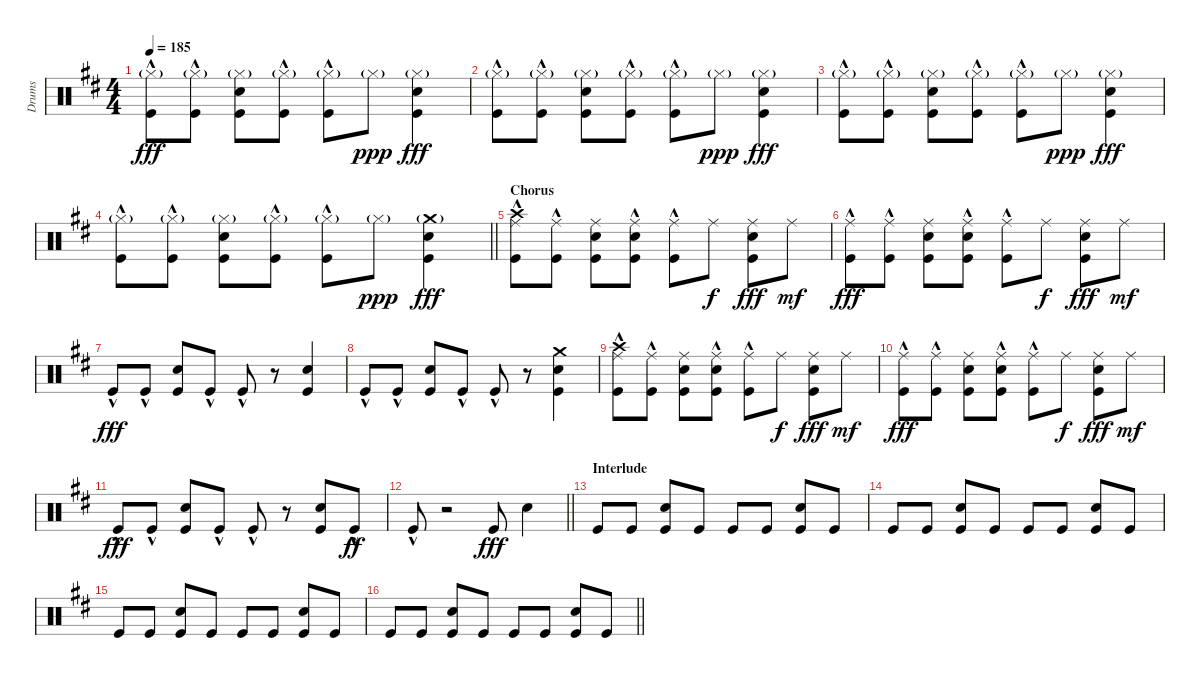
\track ("Drums" "Drums") {instrument percussion}
\staff {score}
\articulation defaults
\ts (4 4)
\tempo 185
\clef neutral
\ks d
("Hi-Hat (closed)"{g} "Kick (hit)"{hac}).8{dy fff} ("Hi-Hat (closed)"{g} "Kick (hit)"{hac}).8 ("Hi-Hat (closed)"{g} "Snare (hit) 2" "Kick (hit)").8 ("Hi-Hat (closed)"{g} "Kick (hit)"{hac}).8 ("Hi-Hat (closed)"{g} "Kick (hit)"{hac}).8 "Hi-Hat (closed)"{g}.8{dy ppp} ("Hi-Hat (closed)"{g} "Snare (hit) 2" "Kick (hit)").4{dy fff} |
("Hi-Hat (closed)"{g} "Kick (hit)"{hac}).8 ("Hi-Hat (closed)"{g} "Kick (hit)"{hac}).8 ("Hi-Hat (closed)"{g} "Snare (hit) 2" "Kick (hit)").8 ("Hi-Hat (closed)"{g} "Kick (hit)"{hac}).8 ("Hi-Hat (closed)"{g} "Kick (hit)"{hac}).8 "Hi-Hat (closed)"{g}.8{dy ppp} ("Hi-Hat (closed)"{g} "Snare (hit) 2" "Kick (hit)").4{dy fff} |
("Hi-Hat (closed)"{g} "Kick (hit)"{hac}).8 ("Hi-Hat (closed)"{g} "Kick (hit)"{hac}).8 ("Hi-Hat (closed)"{g} "Snare (hit) 2" "Kick (hit)").8 ("Hi-Hat (closed)"{g} "Kick (hit)"{hac}).8 ("Hi-Hat (closed)"{g} "Kick (hit)"{hac}).8 "Hi-Hat (closed)"{g}.8{dy ppp} ("Hi-Hat (closed)"{g} "Snare (hit) 2" "Kick (hit)").4{dy fff} |
\barLineRight lightlight
("Hi-Hat (closed)"{g} "Kick (hit)"{hac}).8 ("Hi-Hat (closed)"{g} "Kick (hit)"{hac}).8 ("Hi-Hat (closed)"{g} "Snare (hit) 2" "Kick (hit)").8 ("Hi-Hat (closed)"{g} "Kick (hit)"{hac}).8 ("Hi-Hat (closed)"{g} "Kick (hit)"{hac}).8 "Hi-Hat (closed)"{g}.8{dy ppp} ("Crash medium (hit)"{g} "Snare (hit) 2" "Kick (hit)").4{dy fff} |
\section ("" "Chorus")
("Ride (middle)" "Crash high (hit)" "Kick (hit)"{hac}).8 ("Ride (middle)" "Kick (hit)"{hac}).8 ("Ride (middle)" "Snare (hit) 2" "Kick (hit)").8 ("Ride (middle)" "Snare (hit) 2" "Kick (hit)"{hac}).8 ("Ride (middle)" "Kick (hit)"{hac}).8 "Ride (middle)".8{dy f} ("Ride (middle)" "Snare (hit) 2" "Kick (hit)").8{dy fff} "Ride (middle)".8{dy mf} |
("Ride (middle)" "Kick (hit)"{hac}).8{dy fff} ("Ride (middle)" "Kick (hit)"{hac}).8 ("Ride (middle)" "Snare (hit) 2" "Kick (hit)").8 ("Ride (middle)" "Snare (hit) 2" "Kick (hit)"{hac}).8 ("Ride (middle)" "Kick (hit)"{hac}).8 "Ride (middle)".8{dy f} ("Ride (middle)" "Snare (hit) 2" "Kick (hit)").8{dy fff} "Ride (middle)".8{dy mf} |
"Kick (hit)"{hac}.8{dy fff} "Kick (hit)"{hac}.8 ("Snare (hit) 2" "Kick (hit)").8 "Kick (hit)"{hac}.8 "Kick (hit)"{hac}.8 r.8 ("Snare (hit) 2" "Kick (hit)").4 |
"Kick (hit)"{hac}.8 "Kick (hit)"{hac}.8 ("Snare (hit) 2" "Kick (hit)").8 "Kick (hit)"{hac}.8 "Kick (hit)"{hac}.8 r.8 ("Crash medium (hit)" "Snare (hit) 2" "Kick (hit)").4 |
("Ride (middle)" "Crash high (hit)" "Kick (hit)"{hac}).8 ("Ride (middle)" "Kick (hit)"{hac}).8 ("Ride (middle)" "Snare (hit) 2" "Kick (hit)").8 ("Ride (middle)" "Snare (hit) 2" "Kick (hit)"{hac}).8 ("Ride (middle)" "Kick (hit)"{hac}).8 "Ride (middle)".8{dy f} ("Ride (middle)" "Snare (hit) 2" "Kick (hit)").8{dy fff} "Ride (middle)".8{dy mf} |
("Ride (middle)" "Kick (hit)"{hac}).8{dy fff} ("Ride (middle)" "Kick (hit)"{hac}).8 ("Ride (middle)" "Snare (hit) 2" "Kick (hit)").8 ("Ride (middle)" "Snare (hit) 2" "Kick (hit)"{hac}).8 ("Ride (middle)" "Kick (hit)"{hac}).8 "Ride (middle)".8{dy f} ("Ride (middle)" "Snare (hit) 2" "Kick (hit)").8{dy fff} "Ride (middle)".8{dy mf} |
"Kick (hit)"{hac}.8{dy fff} "Kick (hit)"{hac}.8 ("Snare (hit) 2" "Kick (hit)").8 "Kick (hit)"{hac}.8 "Kick (hit)"{hac}.8 r.8 ("Snare (hit) 2" "Kick (hit)").8 "Kick (hit)"{hac}.8{dy ff} |
\barLineRight lightlight "Kick (hit)"{hac}.8
r.2 "Kick (hit)".8{dy fff} "Snare (hit) 2".4 |
\section ("" "Interlude")
"Kick (hit)".8 "Kick (hit)".8 ("Snare (hit) 2" "Kick (hit)").8 "Kick (hit)".8 "Kick (hit)".8 "Kick (hit)".8 ("Snare (hit) 2" "Kick (hit)").8 "Kick (hit)".8 |
"Kick (hit)".8 "Kick (hit)".8 ("Snare (hit) 2" "Kick (hit)").8 "Kick (hit)".8 "Kick (hit)".8 "Kick (hit)".8 ("Snare (hit) 2" "Kick (hit)").8 "Kick (hit)".8 |
"Kick (hit)".8 "Kick (hit)".8 ("Snare (hit) 2" "Kick (hit)").8 "Kick (hit)".8 "Kick (hit)".8 "Kick (hit)".8 ("Snare (hit) 2" "Kick (hit)").8 "Kick (hit)".8 |
\barLineRight lightlight "Kick (hit)".8 "Kick (hit)".8
("Snare (hit) 2" "Kick (hit)").8 "Kick (hit)".8 "Kick (hit)".8 "Kick (hit)".8 ("Snare (hit) 2" "Kick (hit)").8 "Kick (hit)".8
